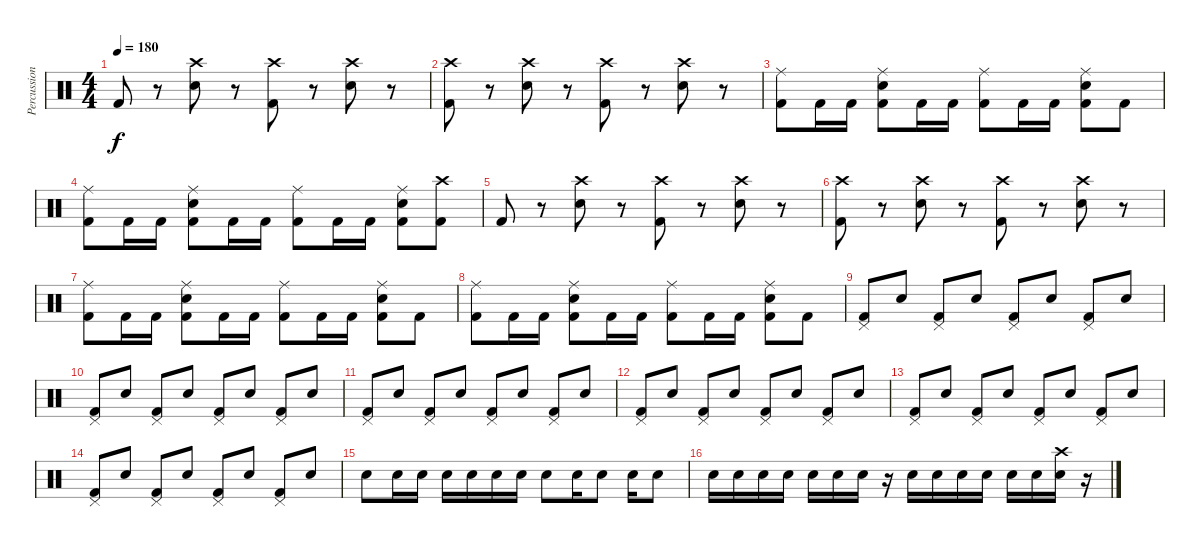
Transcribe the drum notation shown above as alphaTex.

\track ("Percussion" "Percussion") {instrument percussion}
\staff {score}
\articulation defaults
\ts (4 4)
\tempo 180
\clef neutral
\ks c "Kick (hit) 2".8{dy f}
r.8 ("Crash high (hit)" "Snare (hit) 2").8 r.8 ("Crash high (hit)" "Kick (hit) 2").8 r.8 ("Crash high (hit)" "Snare (hit) 2").8 r.8 |
("Crash high (hit)" "Kick (hit) 2").8 r.8 ("Crash high (hit)" "Snare (hit) 2").8 r.8 ("Crash high (hit)" "Kick (hit) 2").8 r.8 ("Crash high (hit)" "Snare (hit) 2").8 r.8 |
("Ride (middle)" "Kick (hit) 2").8 "Kick (hit) 2".16 "Kick (hit) 2".16 ("Ride (middle)" "Snare (hit) 2" "Kick (hit) 2").8 "Kick (hit) 2".16 "Kick (hit) 2".16 ("Ride (middle)" "Kick (hit) 2").8 "Kick (hit) 2".16 "Kick (hit) 2".16 ("Ride (middle)" "Snare (hit) 2" "Kick (hit) 2").8 "Kick (hit) 2".8 |
("Ride (middle)" "Kick (hit) 2").8 "Kick (hit) 2".16 "Kick (hit) 2".16 ("Ride (middle)" "Snare (hit) 2" "Kick (hit) 2").8 "Kick (hit) 2".16 "Kick (hit) 2".16 ("Ride (middle)" "Kick (hit) 2").8 "Kick (hit) 2".16 "Kick (hit) 2".16 ("Ride (middle)" "Snare (hit) 2" "Kick (hit) 2").8 ("Crash high (hit)" "Kick (hit) 2").8 |
"Kick (hit) 2".8 r.8 ("Crash high (hit)" "Snare (hit) 2").8 r.8 ("Crash high (hit)" "Kick (hit) 2").8 r.8 ("Crash high (hit)" "Snare (hit) 2").8 r.8 |
("Crash high (hit)" "Kick (hit) 2").8 r.8 ("Crash high (hit)" "Snare (hit) 2").8 r.8 ("Crash high (hit)" "Kick (hit) 2").8 r.8 ("Crash high (hit)" "Snare (hit) 2").8 r.8 |
("Ride (middle)" "Kick (hit) 2").8 "Kick (hit) 2".16 "Kick (hit) 2".16 ("Ride (middle)" "Snare (hit) 2" "Kick (hit) 2").8 "Kick (hit) 2".16 "Kick (hit) 2".16 ("Ride (middle)" "Kick (hit) 2").8 "Kick (hit) 2".16 "Kick (hit) 2".16 ("Ride (middle)" "Snare (hit) 2" "Kick (hit) 2").8 "Kick (hit) 2".8 |
("Ride (middle)" "Kick (hit) 2").8 "Kick (hit) 2".16 "Kick (hit) 2".16 ("Ride (middle)" "Snare (hit) 2" "Kick (hit) 2").8 "Kick (hit) 2".16 "Kick (hit) 2".16 ("Ride (middle)" "Kick (hit) 2").8 "Kick (hit) 2".16 "Kick (hit) 2".16 ("Ride (middle)" "Snare (hit) 2" "Kick (hit) 2").8 "Kick (hit) 2".8 |
("Pedal Hi-Hat (hit)" "Kick (hit) 2").8 "Snare (hit) 2".8 ("Pedal Hi-Hat (hit)" "Kick (hit) 2").8 "Snare (hit) 2".8 ("Pedal Hi-Hat (hit)" "Kick (hit) 2").8 "Snare (hit) 2".8 ("Pedal Hi-Hat (hit)" "Kick (hit) 2").8 "Snare (hit) 2".8 |
("Pedal Hi-Hat (hit)" "Kick (hit) 2").8 "Snare (hit) 2".8 ("Pedal Hi-Hat (hit)" "Kick (hit) 2").8 "Snare (hit) 2".8 ("Pedal Hi-Hat (hit)" "Kick (hit) 2").8 "Snare (hit) 2".8 ("Pedal Hi-Hat (hit)" "Kick (hit) 2").8 "Snare (hit) 2".8 |
("Pedal Hi-Hat (hit)" "Kick (hit) 2").8 "Snare (hit) 2".8 ("Pedal Hi-Hat (hit)" "Kick (hit) 2").8 "Snare (hit) 2".8 ("Pedal Hi-Hat (hit)" "Kick (hit) 2").8 "Snare (hit) 2".8 ("Pedal Hi-Hat (hit)" "Kick (hit) 2").8 "Snare (hit) 2".8 |
("Pedal Hi-Hat (hit)" "Kick (hit) 2").8 "Snare (hit) 2".8 ("Pedal Hi-Hat (hit)" "Kick (hit) 2").8 "Snare (hit) 2".8 ("Pedal Hi-Hat (hit)" "Kick (hit) 2").8 "Snare (hit) 2".8 ("Pedal Hi-Hat (hit)" "Kick (hit) 2").8 "Snare (hit) 2".8 |
("Pedal Hi-Hat (hit)" "Kick (hit) 2").8 "Snare (hit) 2".8 ("Pedal Hi-Hat (hit)" "Kick (hit) 2").8 "Snare (hit) 2".8 ("Pedal Hi-Hat (hit)" "Kick (hit) 2").8 "Snare (hit) 2".8 ("Pedal Hi-Hat (hit)" "Kick (hit) 2").8 "Snare (hit) 2".8 |
("Pedal Hi-Hat (hit)" "Kick (hit) 2").8 "Snare (hit) 2".8 ("Pedal Hi-Hat (hit)" "Kick (hit) 2").8 "Snare (hit) 2".8 ("Pedal Hi-Hat (hit)" "Kick (hit) 2").8 "Snare (hit) 2".8 ("Pedal Hi-Hat (hit)" "Kick (hit) 2").8 "Snare (hit) 2".8 |
"Snare (hit) 2".8 "Snare (hit) 2".16 "Snare (hit) 2".16 "Snare (hit) 2".16 "Snare (hit) 2".16 "Snare (hit) 2".16 "Snare (hit) 2".16 "Snare (hit) 2".8 "Snare (hit) 2".16 "Snare (hit) 2".8 "Snare (hit) 2".16 "Snare (hit) 2".8 |
"Snare (hit) 2".16 "Snare (hit) 2".16 "Snare (hit) 2".16 "Snare (hit) 2".16 "Snare (hit) 2".16 "Snare (hit) 2".16 "Snare (hit) 2".16 r.16 "Snare (hit) 2".16 "Snare (hit) 2".16 "Snare (hit) 2".16 "Snare (hit) 2".16 "Snare (hit) 2".16 "Snare (hit) 2".16 ("Crash high (hit)" "Snare (hit) 2").16 r.16
